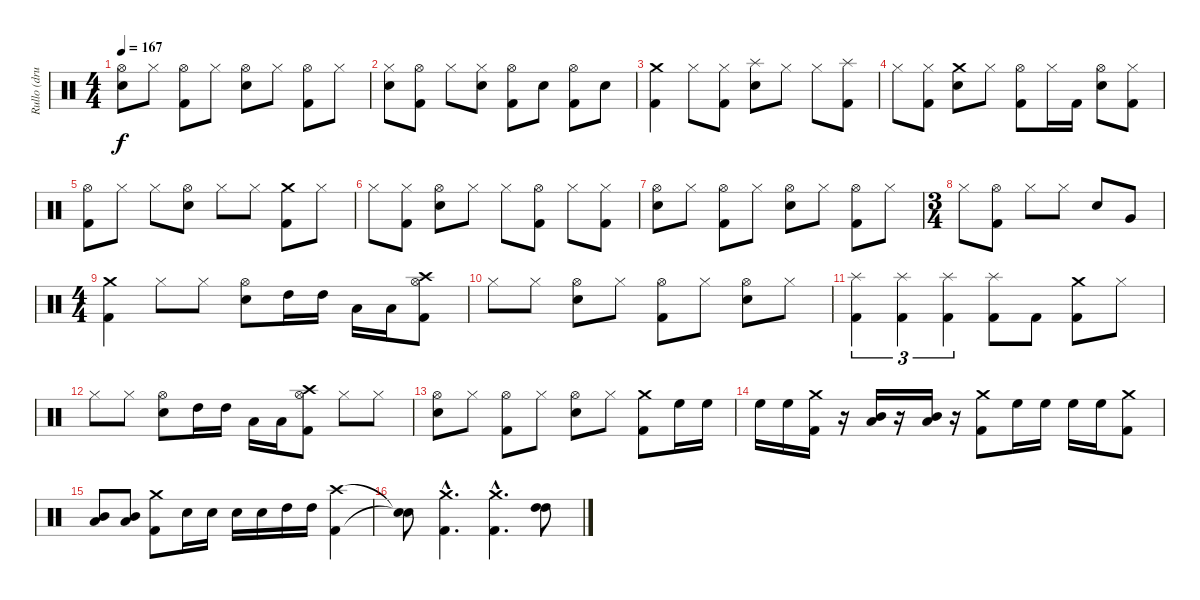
\track ("Rullo (drums)" "Rullo (dru") {instrument percussion}
\staff {score}
\articulation defaults
\ts (4 4)
\tempo 167
\clef neutral
\ks c
("Hi-Hat (open)" "Electric Snare (hit)").8{dy f} "Hi-Hat (closed)".8 ("Hi-Hat (open)" "Kick (hit) 2").8 "Hi-Hat (closed)".8 ("Hi-Hat (open)" "Electric Snare (hit)").8 "Hi-Hat (closed)".8 ("Hi-Hat (open)" "Kick (hit) 2").8 "Hi-Hat (closed)".8 |
("Electric Snare (hit)" "Hi-Hat (closed)").8 ("Hi-Hat (open)" "Kick (hit) 2").8 "Hi-Hat (closed)".8 ("Electric Snare (hit)" "Hi-Hat (closed)").8 ("Hi-Hat (open)" "Kick (hit) 2").8 "Electric Snare (hit)".8 ("Hi-Hat (open)" "Kick (hit) 2").8 "Electric Snare (hit)".8 |
("Crash medium (hit)" "Kick (hit) 2").4 "Hi-Hat (closed)".8 ("Kick (hit) 2" "Hi-Hat (closed)").8 ("Splash (hit)" "Electric Snare (hit)").8 "Hi-Hat (closed)".8 "Hi-Hat (closed)".8 ("Splash (hit)" "Kick (hit) 2").8 |
"Hi-Hat (closed)".8 ("Kick (hit) 2" "Hi-Hat (closed)").8 ("Crash medium (hit)" "Electric Snare (hit)").8 "Hi-Hat (closed)".8 ("Hi-Hat (open)" "Kick (hit) 2").8 "Hi-Hat (closed)".16 "Kick (hit) 2".16 ("Hi-Hat (open)" "Electric Snare (hit)").8 ("Kick (hit) 2" "Hi-Hat (closed)").8 |
("Hi-Hat (open)" "Kick (hit) 2").8 "Hi-Hat (closed)".8 "Hi-Hat (closed)".8 ("Hi-Hat (open)" "Electric Snare (hit)").8 "Hi-Hat (closed)".8 "Hi-Hat (closed)".8 ("Crash medium (hit)" "Kick (hit) 2").8 "Hi-Hat (closed)".8 |
"Hi-Hat (closed)".8 ("Kick (hit) 2" "Hi-Hat (closed)").8 ("Hi-Hat (open)" "Electric Snare (hit)").8 "Hi-Hat (closed)".8 "Hi-Hat (closed)".8 ("Hi-Hat (open)" "Kick (hit) 2").8 "Hi-Hat (closed)".8 ("Kick (hit) 2" "Hi-Hat (closed)").8 |
("Hi-Hat (open)" "Electric Snare (hit)").8 "Hi-Hat (closed)".8 ("Hi-Hat (open)" "Kick (hit) 2").8 "Hi-Hat (closed)".8 ("Hi-Hat (open)" "Electric Snare (hit)").8 "Hi-Hat (closed)".8 ("Hi-Hat (open)" "Kick (hit) 2").8 "Hi-Hat (closed)".8 |
\ts (3 4)
"Hi-Hat (closed)".8 ("Hi-Hat (open)" "Kick (hit) 2").8 "Hi-Hat (closed)".8 "Hi-Hat (closed)".8 "Electric Snare (hit)".8 "Very Low Tom (hit)".8 |
\ts (4 4)
("Crash medium (hit)" "Kick (hit) 2").4 "Hi-Hat (closed)".8 "Hi-Hat (closed)".8 ("Hi-Hat (open)" "Electric Snare (hit)").8 "High Tom (hit)".16 "High Tom (hit)".16 "Low Tom (hit)".16 "Low Tom (hit)".16 ("Hi-Hat (open)" "Kick (hit) 2" "Crash high (hit)").8 |
"Hi-Hat (closed)".8 "Hi-Hat (closed)".8 ("Hi-Hat (open)" "Electric Snare (hit)").8 "Hi-Hat (closed)".8 ("Hi-Hat (open)" "Kick (hit) 2").8 "Hi-Hat (closed)".8 ("Hi-Hat (open)" "Electric Snare (hit)").8 "Hi-Hat (closed)".8 |
("Splash (hit)" "Kick (hit) 2").4{tu (3 2)} ("Splash (hit)" "Kick (hit) 2").4{tu (3 2)} ("Splash (hit)" "Kick (hit) 2").4{tu (3 2)} ("Splash (hit)" "Kick (hit) 2").8 "Kick (hit) 2".8 ("Crash medium (hit)" "Kick (hit) 2").8 "Hi-Hat (closed)".8 |
"Hi-Hat (closed)".8 "Hi-Hat (closed)".8 ("Hi-Hat (open)" "Electric Snare (hit)").8 "High Tom (hit)".16 "High Tom (hit)".16 "Low Tom (hit)".16 "Low Tom (hit)".16 ("Hi-Hat (open)" "Kick (hit) 2" "Crash high (hit)").8 "Hi-Hat (closed)".8 "Hi-Hat (closed)".8 |
("Hi-Hat (open)" "Electric Snare (hit)").8 "Hi-Hat (closed)".8 ("Hi-Hat (open)" "Kick (hit) 2").8 "Hi-Hat (closed)".8 ("Hi-Hat (open)" "Electric Snare (hit)").8 "Hi-Hat (closed)".8 ("Crash medium (hit)" "Kick (hit) 2").8 "High Floor Tom (hit)".16 "High Floor Tom (hit)".16 |
"High Floor Tom (hit)".16 "High Floor Tom (hit)".16 ("Crash medium (hit)" "Kick (hit) 2").16 r.16 ("Mid Tom (hit)" "Low Tom (hit)").16 r.16 ("Mid Tom (hit)" "Low Tom (hit)").16 r.16 ("Crash medium (hit)" "Kick (hit) 2").8 "High Floor Tom (hit)".16 "High Floor Tom (hit)".16 "High Floor Tom (hit)".16 "High Floor Tom (hit)".16 ("Crash medium (hit)" "Kick (hit) 2").8 |
("Mid Tom (hit)" "Low Tom (hit)").8 ("Mid Tom (hit)" "Low Tom (hit)").8 ("Crash medium (hit)" "Kick (hit) 2").8 "Electric Snare (hit)".16 "Electric Snare (hit)".16 "Electric Snare (hit)".16 "Electric Snare (hit)".16 "High Tom (hit)".16 "High Tom (hit)".16 ("Crash high (hit)" "Kick (hit) 2").4 |
("Snare (hit)"{t} "Snare (hit)"{t}).8 ("Crash medium (hit)"{hac} "Kick (hit) 2"{hac}).4{d} ("Crash medium (hit)"{hac} "Kick (hit) 2"{hac}).4{d} ("High Tom (hit)" "High Tom (hit)").8
